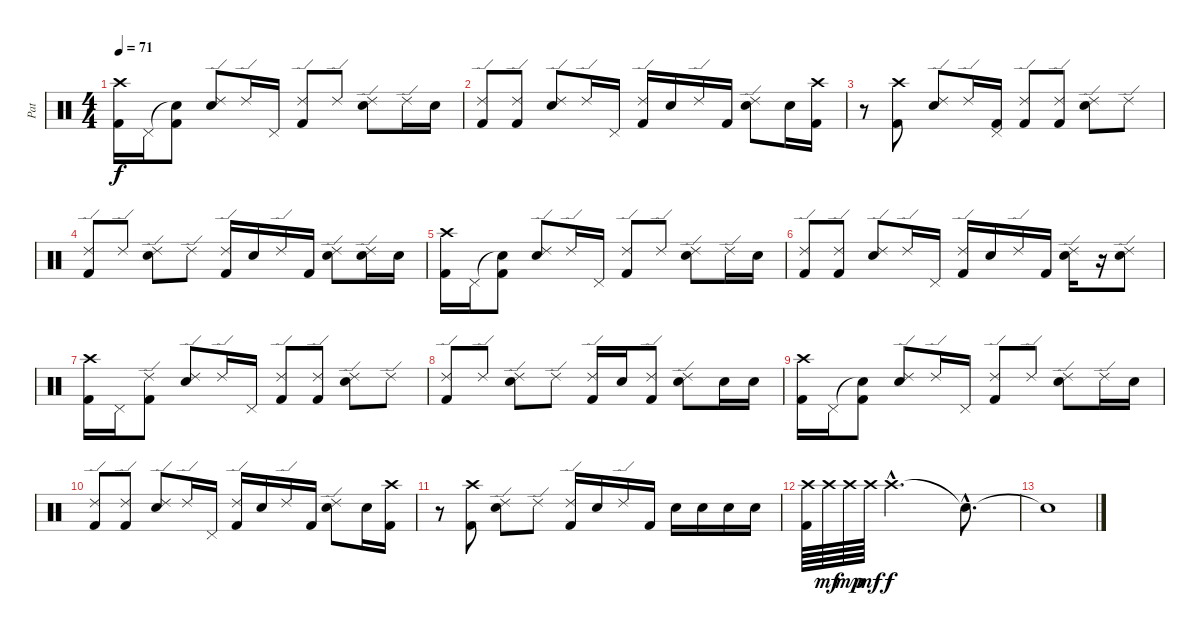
\track ("Pat" "Pat") {instrument percussion}
\staff {score}
\articulation defaults
\ts (4 4)
\tempo 71
\clef neutral
\ks c
("Crash high (hit)" "Kick (hit) 2").16{dy f} "Pedal Hi-Hat (hit)".16 ("Snare (hit)"{t} "Kick (hit) 2").8 ("Ride (edge) 2" "Snare (hit) 2").8 "Ride (edge) 2".16 "Pedal Hi-Hat (hit)".16 ("Ride (edge) 2" "Kick (hit) 2").8 "Ride (edge) 2".8 ("Ride (edge) 2" "Snare (hit) 2").8 "Ride (edge) 2".16 "Snare (hit) 2".16 |
("Ride (edge) 2" "Kick (hit) 2").8 ("Ride (edge) 2" "Kick (hit) 2").8 ("Ride (edge) 2" "Snare (hit) 2").8 "Ride (edge) 2".16 "Pedal Hi-Hat (hit)".16 ("Ride (edge) 2" "Kick (hit) 2").16 "Snare (hit) 2".16 "Ride (edge) 2".16 "Kick (hit) 2".16 ("Ride (edge) 2" "Snare (hit) 2").8 "Snare (hit) 2".16 ("Crash high (hit)" "Kick (hit) 2").16 |
r.8 ("Crash high (hit)" "Kick (hit) 2").8 ("Ride (edge) 2" "Snare (hit) 2").8 "Ride (edge) 2".16 ("Pedal Hi-Hat (hit)" "Kick (hit) 2").16 ("Ride (edge) 2" "Kick (hit) 2").8 ("Ride (edge) 2" "Kick (hit) 2").8 ("Ride (edge) 2" "Snare (hit) 2").8 "Ride (edge) 2".8 |
("Ride (edge) 2" "Kick (hit) 2").8 "Ride (edge) 2".8 ("Ride (edge) 2" "Snare (hit) 2").8 "Ride (edge) 2".8 ("Ride (edge) 2" "Kick (hit) 2").16 "Snare (hit) 2".16 "Ride (edge) 2".16 "Kick (hit) 2".16 ("Ride (edge) 2" "Snare (hit) 2").8 ("Ride (edge) 2" "Snare (hit) 2").16 "Snare (hit) 2".16 |
("Crash high (hit)" "Kick (hit) 2").16 "Pedal Hi-Hat (hit)".16 ("Snare (hit)"{t} "Kick (hit) 2").8 ("Ride (edge) 2" "Snare (hit) 2").8 "Ride (edge) 2".16 "Pedal Hi-Hat (hit)".16 ("Ride (edge) 2" "Kick (hit) 2").8 "Ride (edge) 2".8 ("Ride (edge) 2" "Snare (hit) 2").8 "Ride (edge) 2".16 "Snare (hit) 2".16 |
("Ride (edge) 2" "Kick (hit) 2").8 ("Ride (edge) 2" "Kick (hit) 2").8 ("Ride (edge) 2" "Snare (hit) 2").8 "Ride (edge) 2".16 "Pedal Hi-Hat (hit)".16 ("Ride (edge) 2" "Kick (hit) 2").16 "Snare (hit) 2".16 "Ride (edge) 2".16 "Kick (hit) 2".16 ("Ride (edge) 2" "Snare (hit) 2").16 r.16 ("Ride (edge) 2" "Snare (hit) 2").8 |
("Crash high (hit)" "Kick (hit) 2").16 "Pedal Hi-Hat (hit)".16 ("Ride (edge) 2" "Kick (hit) 2").8 ("Ride (edge) 2" "Snare (hit) 2").8 "Ride (edge) 2".16 "Pedal Hi-Hat (hit)".16 ("Ride (edge) 2" "Kick (hit) 2").8 ("Ride (edge) 2" "Kick (hit) 2").8 ("Ride (edge) 2" "Snare (hit) 2").8 "Ride (edge) 2".8 |
("Ride (edge) 2" "Kick (hit) 2").8 "Ride (edge) 2".8 ("Ride (edge) 2" "Snare (hit) 2").8 "Ride (edge) 2".8 ("Ride (edge) 2" "Kick (hit) 2").16 "Snare (hit) 2".16 ("Ride (edge) 2" "Kick (hit) 2").8 ("Ride (edge) 2" "Snare (hit) 2").8 "Snare (hit) 2".16 "Snare (hit) 2".16 |
("Crash high (hit)" "Kick (hit) 2").16 "Pedal Hi-Hat (hit)".16 ("Snare (hit)"{t} "Kick (hit) 2").8 ("Ride (edge) 2" "Snare (hit) 2").8 "Ride (edge) 2".16 "Pedal Hi-Hat (hit)".16 ("Ride (edge) 2" "Kick (hit) 2").8 "Ride (edge) 2".8 ("Ride (edge) 2" "Snare (hit) 2").8 "Ride (edge) 2".16 "Snare (hit) 2".16 |
("Ride (edge) 2" "Kick (hit) 2").8 ("Ride (edge) 2" "Kick (hit) 2").8 ("Ride (edge) 2" "Snare (hit) 2").8 "Ride (edge) 2".16 "Pedal Hi-Hat (hit)".16 ("Ride (edge) 2" "Kick (hit) 2").16 "Snare (hit) 2".16 "Ride (edge) 2".16 "Kick (hit) 2".16 ("Ride (edge) 2" "Snare (hit) 2").8 "Snare (hit) 2".16 ("Crash high (hit)" "Kick (hit) 2").16 |
r.8 ("Crash high (hit)" "Kick (hit) 2").8 ("Ride (edge) 2" "Snare (hit) 2").8 "Ride (edge) 2".8 ("Ride (edge) 2" "Kick (hit) 2").16 "Snare (hit) 2".16 "Ride (edge) 2".16 "Kick (hit) 2".16 "Snare (hit) 2".16 "Snare (hit) 2".16 "Snare (hit) 2".16 "Snare (hit) 2".16 |
("Crash high (hit)" "Kick (hit) 2").64 "Crash high (hit)".64{dy mf} "Crash high (hit)".64{dy mp} "Crash high (hit)".64{dy mf} "Crash high (hit)"{hac}.2{d dy f} "Snare (hit)"{hac t}.8{d} |
"Snare (hit)"{t}.1
